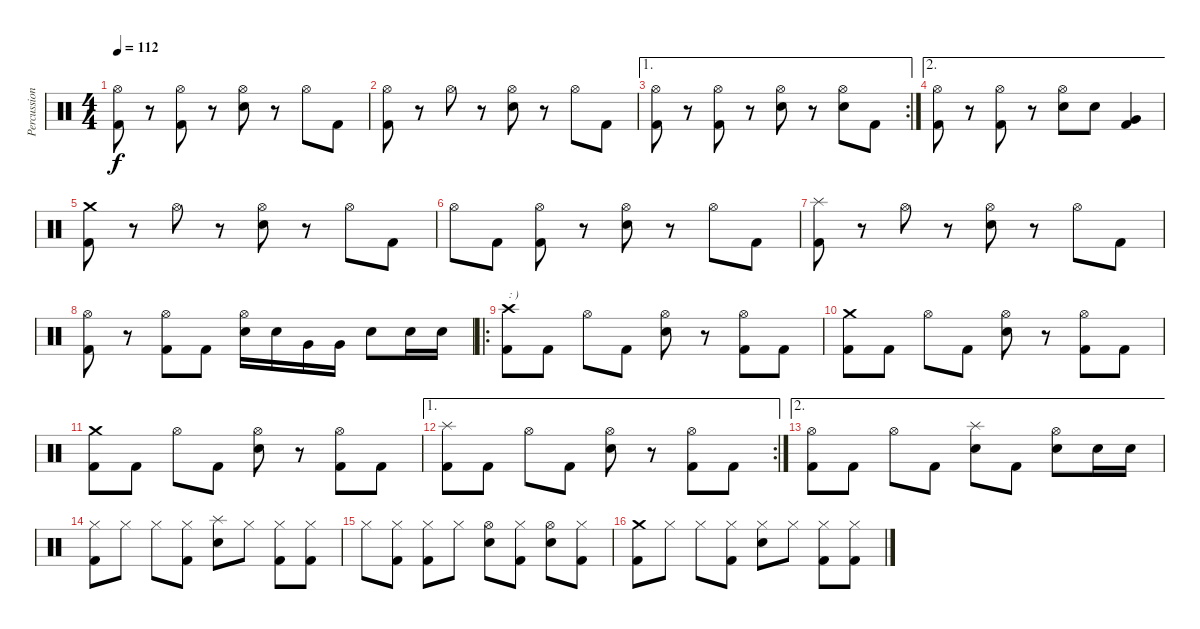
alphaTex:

\track ("Percussion" "Percussion") {instrument percussion}
\staff {score}
\articulation defaults
\ts (4 4)
\tempo 112
\clef neutral
\ks c
("Hi-Hat (open)" "Kick (hit) 2").8{dy f} r.8 ("Hi-Hat (open)" "Kick (hit) 2").8 r.8 ("Hi-Hat (open)" "Snare (hit) 2").8 r.8 "Hi-Hat (open)".8 "Kick (hit) 2".8 |
("Hi-Hat (open)" "Kick (hit) 2").8 r.8 "Hi-Hat (open)".8 r.8 ("Hi-Hat (open)" "Snare (hit) 2").8 r.8 "Hi-Hat (open)".8 "Kick (hit) 2".8 |
\ae 1
\rc 2
("Hi-Hat (open)" "Kick (hit) 2").8 r.8 ("Hi-Hat (open)" "Kick (hit) 2").8 r.8 ("Hi-Hat (open)" "Snare (hit) 2").8 r.8 ("Hi-Hat (open)" "Snare (hit) 2").8 "Kick (hit) 2".8 |
\ae 2
("Hi-Hat (open)" "Kick (hit) 2").8 r.8 ("Hi-Hat (open)" "Kick (hit) 2").8 r.8 ("Hi-Hat (open)" "Snare (hit) 2").8 "Snare (hit) 2".8 ("Very Low Tom (hit)" "Kick (hit) 2").4 |
("Crash medium (hit)" "Kick (hit) 2").8 r.8 "Hi-Hat (open)".8 r.8 ("Hi-Hat (open)" "Snare (hit) 2").8 r.8 "Hi-Hat (open)".8 "Kick (hit) 2".8 |
"Hi-Hat (open)".8 "Kick (hit) 2".8 ("Hi-Hat (open)" "Kick (hit) 2").8 r.8 ("Hi-Hat (open)" "Snare (hit) 2").8 r.8 "Hi-Hat (open)".8 "Kick (hit) 2".8 |
("Splash (hit)" "Kick (hit) 2").8 r.8 "Hi-Hat (open)".8 r.8 ("Hi-Hat (open)" "Snare (hit) 2").8 r.8 "Hi-Hat (open)".8 "Kick (hit) 2".8 |
("Hi-Hat (open)" "Kick (hit) 2").8 r.8 ("Hi-Hat (open)" "Kick (hit) 2").8 "Kick (hit) 2".8 ("Hi-Hat (open)" "Snare (hit) 2").16 "Snare (hit) 2".16 "Very Low Tom (hit)".16 "Very Low Tom (hit)".16 "Snare (hit) 2".8 "Snare (hit) 2".16 "Snare (hit) 2".16 |
\ro
("Crash high (hit)" "Kick (hit) 2").8{txt ": )"} "Kick (hit) 2".8 "Hi-Hat (open)".8 "Kick (hit) 2".8 ("Hi-Hat (open)" "Snare (hit) 2").8 r.8 ("Hi-Hat (open)" "Kick (hit) 2").8 "Kick (hit) 2".8 |
("Crash medium (hit)" "Kick (hit) 2").8 "Kick (hit) 2".8 "Hi-Hat (open)".8 "Kick (hit) 2".8 ("Hi-Hat (open)" "Snare (hit) 2").8 r.8 ("Hi-Hat (open)" "Kick (hit) 2").8 "Kick (hit) 2".8 |
("Crash medium (hit)" "Kick (hit) 2").8 "Kick (hit) 2".8 "Hi-Hat (open)".8 "Kick (hit) 2".8 ("Hi-Hat (open)" "Snare (hit) 2").8 r.8 ("Hi-Hat (open)" "Kick (hit) 2").8 "Kick (hit) 2".8 |
\ae 1
\rc 2
("Splash (hit)" "Kick (hit) 2").8 "Kick (hit) 2".8 "Hi-Hat (open)".8 "Kick (hit) 2".8 ("Hi-Hat (open)" "Snare (hit) 2").8 r.8 ("Hi-Hat (open)" "Kick (hit) 2").8 "Kick (hit) 2".8 |
\ae 2
("Hi-Hat (open)" "Kick (hit) 2").8 "Kick (hit) 2".8 "Hi-Hat (open)".8 "Kick (hit) 2".8 ("Splash (hit)" "Snare (hit) 2").8 "Kick (hit) 2".8 ("Hi-Hat (open)" "Snare (hit) 2").8 "Snare (hit) 2".16 "Snare (hit) 2".16 |
("Hi-Hat (closed)" "Kick (hit) 2").8 "Hi-Hat (closed)".8 "Hi-Hat (closed)".8 ("Hi-Hat (closed)" "Kick (hit) 2").8 ("Splash (hit)" "Snare (hit) 2").8 "Hi-Hat (closed)".8 ("Hi-Hat (closed)" "Kick (hit) 2").8 ("Hi-Hat (closed)" "Kick (hit) 2").8 |
"Hi-Hat (closed)".8 ("Hi-Hat (closed)" "Kick (hit) 2").8 ("Hi-Hat (closed)" "Kick (hit) 2").8 "Hi-Hat (closed)".8 ("Hi-Hat (open)" "Snare (hit) 2").8 ("Hi-Hat (closed)" "Kick (hit) 2").8 ("Hi-Hat (open)" "Snare (hit) 2").8 ("Hi-Hat (closed)" "Kick (hit) 2").8 |
("Crash medium (hit)" "Kick (hit) 2").8 "Hi-Hat (closed)".8 "Hi-Hat (closed)".8 ("Hi-Hat (closed)" "Kick (hit) 2").8 ("Hi-Hat (closed)" "Snare (hit) 2").8 "Hi-Hat (closed)".8 ("Hi-Hat (closed)" "Kick (hit) 2").8 ("Hi-Hat (closed)" "Kick (hit) 2").8
